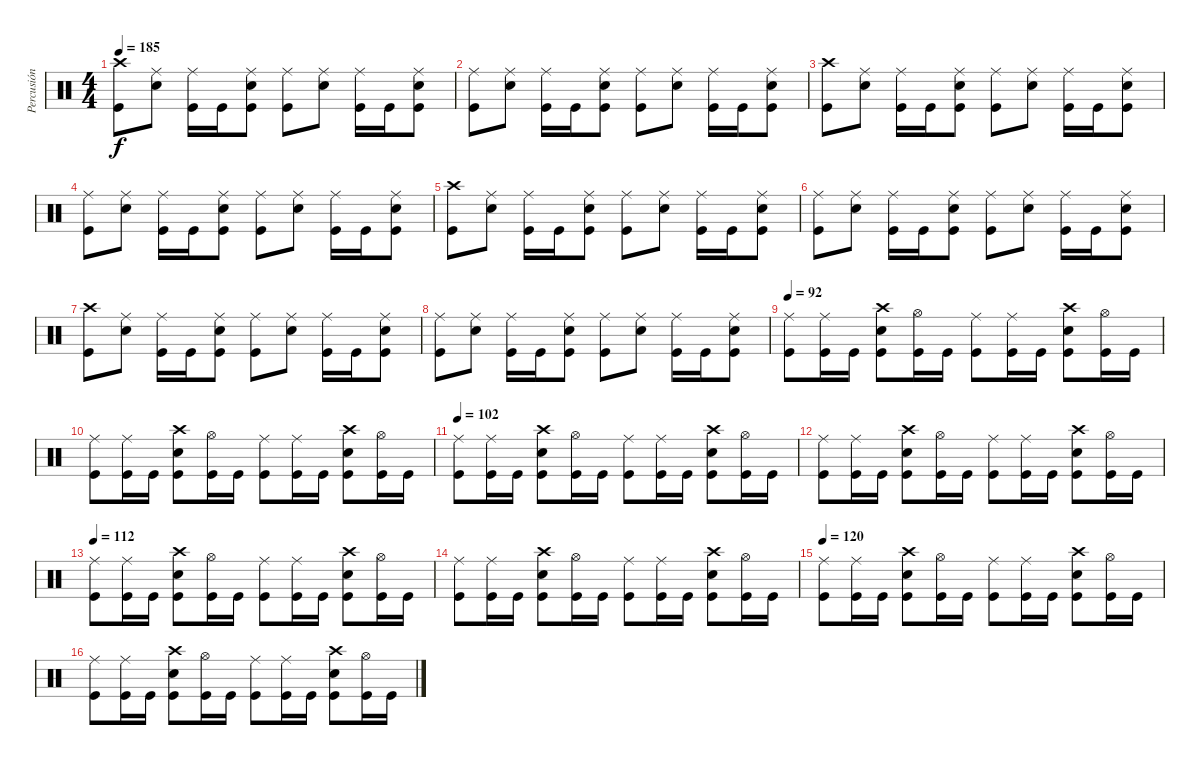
\track ("Percusión" "Percusión") {instrument percussion}
\staff {score}
\articulation defaults
\ts (4 4)
\tempo 185
\clef neutral
\ks c
("Kick (hit)" "Crash high (hit)").8{dy f} ("Snare (hit) 2" "Ride (middle)").8 ("Kick (hit)" "Ride (middle)").16 "Kick (hit)".16 ("Kick (hit)" "Ride (middle)" "Snare (hit) 2").8 ("Kick (hit)" "Ride (middle)").8 ("Snare (hit) 2" "Ride (middle)").8 ("Kick (hit)" "Ride (middle)").16 "Kick (hit)".16 ("Kick (hit)" "Ride (middle)" "Snare (hit) 2").8 |
("Kick (hit)" "Ride (middle)").8 ("Snare (hit) 2" "Ride (middle)").8 ("Kick (hit)" "Ride (middle)").16 "Kick (hit)".16 ("Kick (hit)" "Ride (middle)" "Snare (hit) 2").8 ("Kick (hit)" "Ride (middle)").8 ("Snare (hit) 2" "Ride (middle)").8 ("Kick (hit)" "Ride (middle)").16 "Kick (hit)".16 ("Kick (hit)" "Ride (middle)" "Snare (hit) 2").8 |
("Kick (hit)" "Crash high (hit)").8 ("Snare (hit) 2" "Ride (middle)").8 ("Kick (hit)" "Ride (middle)").16 "Kick (hit)".16 ("Kick (hit)" "Ride (middle)" "Snare (hit) 2").8 ("Kick (hit)" "Ride (middle)").8 ("Snare (hit) 2" "Ride (middle)").8 ("Kick (hit)" "Ride (middle)").16 "Kick (hit)".16 ("Kick (hit)" "Ride (middle)" "Snare (hit) 2").8 |
("Kick (hit)" "Ride (middle)").8 ("Snare (hit) 2" "Ride (middle)").8 ("Kick (hit)" "Ride (middle)").16 "Kick (hit)".16 ("Kick (hit)" "Ride (middle)" "Snare (hit) 2").8 ("Kick (hit)" "Ride (middle)").8 ("Snare (hit) 2" "Ride (middle)").8 ("Kick (hit)" "Ride (middle)").16 "Kick (hit)".16 ("Kick (hit)" "Ride (middle)" "Snare (hit) 2").8 |
("Kick (hit)" "Crash high (hit)").8 ("Snare (hit) 2" "Ride (middle)").8 ("Kick (hit)" "Ride (middle)").16 "Kick (hit)".16 ("Kick (hit)" "Ride (middle)" "Snare (hit) 2").8 ("Kick (hit)" "Ride (middle)").8 ("Snare (hit) 2" "Ride (middle)").8 ("Kick (hit)" "Ride (middle)").16 "Kick (hit)".16 ("Kick (hit)" "Ride (middle)" "Snare (hit) 2").8 |
("Kick (hit)" "Ride (middle)").8 ("Snare (hit) 2" "Ride (middle)").8 ("Kick (hit)" "Ride (middle)").16 "Kick (hit)".16 ("Kick (hit)" "Ride (middle)" "Snare (hit) 2").8 ("Kick (hit)" "Ride (middle)").8 ("Snare (hit) 2" "Ride (middle)").8 ("Kick (hit)" "Ride (middle)").16 "Kick (hit)".16 ("Kick (hit)" "Ride (middle)" "Snare (hit) 2").8 |
("Kick (hit)" "Crash high (hit)").8 ("Snare (hit) 2" "Ride (middle)").8 ("Kick (hit)" "Ride (middle)").16 "Kick (hit)".16 ("Kick (hit)" "Ride (middle)" "Snare (hit) 2").8 ("Kick (hit)" "Ride (middle)").8 ("Snare (hit) 2" "Ride (middle)").8 ("Kick (hit)" "Ride (middle)").16 "Kick (hit)".16 ("Kick (hit)" "Ride (middle)" "Snare (hit) 2").8 |
("Kick (hit)" "Ride (middle)").8 ("Snare (hit) 2" "Ride (middle)").8 ("Kick (hit)" "Ride (middle)").16 "Kick (hit)".16 ("Kick (hit)" "Ride (middle)" "Snare (hit) 2").8 ("Kick (hit)" "Ride (middle)").8 ("Snare (hit) 2" "Ride (middle)").8 ("Kick (hit)" "Ride (middle)").16 "Kick (hit)".16 ("Kick (hit)" "Ride (middle)" "Snare (hit) 2").8 |
\tempo 92
("Ride (middle)" "Kick (hit)").8 ("Ride (middle)" "Kick (hit)").16 "Kick (hit)".16 ("Crash high (hit)" "Kick (hit)" "Snare (hit) 2").8 ("Hi-Hat (open)" "Kick (hit)").16 "Kick (hit)".16 ("Ride (middle)" "Kick (hit)").8 ("Ride (middle)" "Kick (hit)").16 "Kick (hit)".16 ("Crash high (hit)" "Kick (hit)" "Snare (hit) 2").8 ("Hi-Hat (open)" "Kick (hit)").16 "Kick (hit)".16 |
("Ride (middle)" "Kick (hit)").8 ("Ride (middle)" "Kick (hit)").16 "Kick (hit)".16 ("Crash high (hit)" "Kick (hit)" "Snare (hit) 2").8 ("Hi-Hat (open)" "Kick (hit)").16 "Kick (hit)".16 ("Ride (middle)" "Kick (hit)").8 ("Ride (middle)" "Kick (hit)").16 "Kick (hit)".16 ("Crash high (hit)" "Kick (hit)" "Snare (hit) 2").8 ("Hi-Hat (open)" "Kick (hit)").16 "Kick (hit)".16 |
\tempo 102
("Ride (middle)" "Kick (hit)").8 ("Ride (middle)" "Kick (hit)").16 "Kick (hit)".16 ("Crash high (hit)" "Kick (hit)" "Snare (hit) 2").8 ("Hi-Hat (open)" "Kick (hit)").16 "Kick (hit)".16 ("Ride (middle)" "Kick (hit)").8 ("Ride (middle)" "Kick (hit)").16 "Kick (hit)".16 ("Crash high (hit)" "Kick (hit)" "Snare (hit) 2").8 ("Hi-Hat (open)" "Kick (hit)").16 "Kick (hit)".16 |
("Ride (middle)" "Kick (hit)").8 ("Ride (middle)" "Kick (hit)").16 "Kick (hit)".16 ("Crash high (hit)" "Kick (hit)" "Snare (hit) 2").8 ("Hi-Hat (open)" "Kick (hit)").16 "Kick (hit)".16 ("Ride (middle)" "Kick (hit)").8 ("Ride (middle)" "Kick (hit)").16 "Kick (hit)".16 ("Crash high (hit)" "Kick (hit)" "Snare (hit) 2").8 ("Hi-Hat (open)" "Kick (hit)").16 "Kick (hit)".16 |
\tempo 112
("Ride (middle)" "Kick (hit)").8 ("Ride (middle)" "Kick (hit)").16 "Kick (hit)".16 ("Crash high (hit)" "Kick (hit)" "Snare (hit) 2").8 ("Hi-Hat (open)" "Kick (hit)").16 "Kick (hit)".16 ("Ride (middle)" "Kick (hit)").8 ("Ride (middle)" "Kick (hit)").16 "Kick (hit)".16 ("Crash high (hit)" "Kick (hit)" "Snare (hit) 2").8 ("Hi-Hat (open)" "Kick (hit)").16 "Kick (hit)".16 |
("Ride (middle)" "Kick (hit)").8 ("Ride (middle)" "Kick (hit)").16 "Kick (hit)".16 ("Crash high (hit)" "Kick (hit)" "Snare (hit) 2").8 ("Hi-Hat (open)" "Kick (hit)").16 "Kick (hit)".16 ("Ride (middle)" "Kick (hit)").8 ("Ride (middle)" "Kick (hit)").16 "Kick (hit)".16 ("Crash high (hit)" "Kick (hit)" "Snare (hit) 2").8 ("Hi-Hat (open)" "Kick (hit)").16 "Kick (hit)".16 |
\tempo 120
("Ride (middle)" "Kick (hit)").8 ("Ride (middle)" "Kick (hit)").16 "Kick (hit)".16 ("Crash high (hit)" "Kick (hit)" "Snare (hit) 2").8 ("Hi-Hat (open)" "Kick (hit)").16 "Kick (hit)".16 ("Ride (middle)" "Kick (hit)").8 ("Ride (middle)" "Kick (hit)").16 "Kick (hit)".16 ("Crash high (hit)" "Kick (hit)" "Snare (hit) 2").8 ("Hi-Hat (open)" "Kick (hit)").16 "Kick (hit)".16 |
("Ride (middle)" "Kick (hit)").8 ("Ride (middle)" "Kick (hit)").16 "Kick (hit)".16 ("Crash high (hit)" "Kick (hit)" "Snare (hit) 2").8 ("Hi-Hat (open)" "Kick (hit)").16 "Kick (hit)".16 ("Ride (middle)" "Kick (hit)").8 ("Ride (middle)" "Kick (hit)").16 "Kick (hit)".16 ("Crash high (hit)" "Kick (hit)" "Snare (hit) 2").8 ("Hi-Hat (open)" "Kick (hit)").16 "Kick (hit)".16
